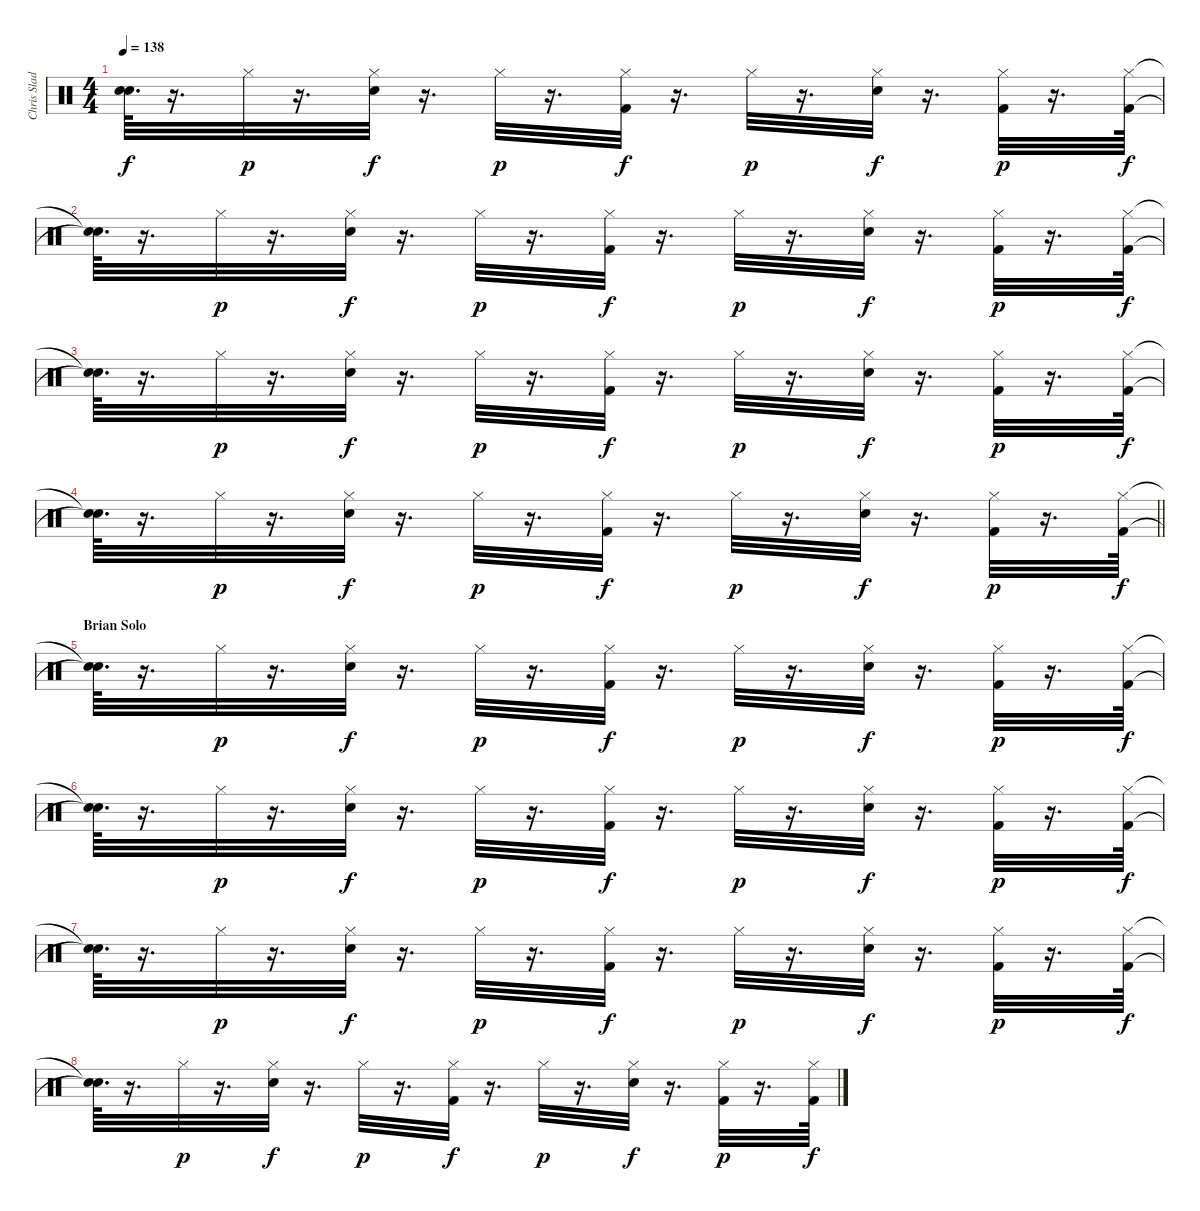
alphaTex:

\track ("Chris Slade" "Chris Slad") {instrument percussion}
\staff {score}
\articulation defaults
\ts (4 4)
\tempo 138
\clef neutral
\ks c
("Snare (hit)"{t} "Snare (hit)"{t}).64{d dy f} r.16{d} "Hi-Hat (closed)".32{dy p} r.16{d} ("Hi-Hat (closed)" "Electric Snare (hit)").32{dy f} r.16{d} "Hi-Hat (closed)".32{dy p} r.16{d} ("Hi-Hat (closed)" "Kick (hit) 2").32{dy f} r.16{d} "Hi-Hat (closed)".32{dy p} r.16{d} ("Hi-Hat (closed)" "Electric Snare (hit)").32{dy f} r.16{d} ("Hi-Hat (closed)" "Kick (hit) 2").32{dy p} r.16{d} ("Hi-Hat (closed)" "Kick (hit) 2").64{dy f} |
("Snare (hit)"{t} "Snare (hit)"{t}).64{d} r.16{d} "Hi-Hat (closed)".32{dy p} r.16{d} ("Hi-Hat (closed)" "Electric Snare (hit)").32{dy f} r.16{d} "Hi-Hat (closed)".32{dy p} r.16{d} ("Hi-Hat (closed)" "Kick (hit) 2").32{dy f} r.16{d} "Hi-Hat (closed)".32{dy p} r.16{d} ("Hi-Hat (closed)" "Electric Snare (hit)").32{dy f} r.16{d} ("Hi-Hat (closed)" "Kick (hit) 2").32{dy p} r.16{d} ("Hi-Hat (closed)" "Kick (hit) 2").64{dy f} |
("Snare (hit)"{t} "Snare (hit)"{t}).64{d} r.16{d} "Hi-Hat (closed)".32{dy p} r.16{d} ("Hi-Hat (closed)" "Electric Snare (hit)").32{dy f} r.16{d} "Hi-Hat (closed)".32{dy p} r.16{d} ("Hi-Hat (closed)" "Kick (hit) 2").32{dy f} r.16{d} "Hi-Hat (closed)".32{dy p} r.16{d} ("Hi-Hat (closed)" "Electric Snare (hit)").32{dy f} r.16{d} ("Hi-Hat (closed)" "Kick (hit) 2").32{dy p} r.16{d} ("Hi-Hat (closed)" "Kick (hit) 2").64{dy f} |
\barLineRight lightlight
("Snare (hit)"{t} "Snare (hit)"{t}).64{d} r.16{d} "Hi-Hat (closed)".32{dy p} r.16{d} ("Hi-Hat (closed)" "Electric Snare (hit)").32{dy f} r.16{d} "Hi-Hat (closed)".32{dy p} r.16{d} ("Hi-Hat (closed)" "Kick (hit) 2").32{dy f} r.16{d} "Hi-Hat (closed)".32{dy p} r.16{d} ("Hi-Hat (closed)" "Electric Snare (hit)").32{dy f} r.16{d} ("Hi-Hat (closed)" "Kick (hit) 2").32{dy p} r.16{d} ("Hi-Hat (closed)" "Kick (hit) 2").64{dy f} |
\section ("" "Brian Solo")
("Snare (hit)"{t} "Snare (hit)"{t}).64{d} r.16{d} "Hi-Hat (closed)".32{dy p} r.16{d} ("Hi-Hat (closed)" "Electric Snare (hit)").32{dy f} r.16{d} "Hi-Hat (closed)".32{dy p} r.16{d} ("Hi-Hat (closed)" "Kick (hit) 2").32{dy f} r.16{d} "Hi-Hat (closed)".32{dy p} r.16{d} ("Hi-Hat (closed)" "Electric Snare (hit)").32{dy f} r.16{d} ("Hi-Hat (closed)" "Kick (hit) 2").32{dy p} r.16{d} ("Hi-Hat (closed)" "Kick (hit) 2").64{dy f} |
("Snare (hit)"{t} "Snare (hit)"{t}).64{d} r.16{d} "Hi-Hat (closed)".32{dy p} r.16{d} ("Hi-Hat (closed)" "Electric Snare (hit)").32{dy f} r.16{d} "Hi-Hat (closed)".32{dy p} r.16{d} ("Hi-Hat (closed)" "Kick (hit) 2").32{dy f} r.16{d} "Hi-Hat (closed)".32{dy p} r.16{d} ("Hi-Hat (closed)" "Electric Snare (hit)").32{dy f} r.16{d} ("Hi-Hat (closed)" "Kick (hit) 2").32{dy p} r.16{d} ("Hi-Hat (closed)" "Kick (hit) 2").64{dy f} |
("Snare (hit)"{t} "Snare (hit)"{t}).64{d} r.16{d} "Hi-Hat (closed)".32{dy p} r.16{d} ("Hi-Hat (closed)" "Electric Snare (hit)").32{dy f} r.16{d} "Hi-Hat (closed)".32{dy p} r.16{d} ("Hi-Hat (closed)" "Kick (hit) 2").32{dy f} r.16{d} "Hi-Hat (closed)".32{dy p} r.16{d} ("Hi-Hat (closed)" "Electric Snare (hit)").32{dy f} r.16{d} ("Hi-Hat (closed)" "Kick (hit) 2").32{dy p} r.16{d} ("Hi-Hat (closed)" "Kick (hit) 2").64{dy f} |
("Snare (hit)"{t} "Snare (hit)"{t}).64{d} r.16{d} "Hi-Hat (closed)".32{dy p} r.16{d} ("Hi-Hat (closed)" "Electric Snare (hit)").32{dy f} r.16{d} "Hi-Hat (closed)".32{dy p} r.16{d} ("Hi-Hat (closed)" "Kick (hit) 2").32{dy f} r.16{d} "Hi-Hat (closed)".32{dy p} r.16{d} ("Hi-Hat (closed)" "Electric Snare (hit)").32{dy f} r.16{d} ("Hi-Hat (closed)" "Kick (hit) 2").32{dy p} r.16{d} ("Hi-Hat (closed)" "Kick (hit) 2").64{dy f}
